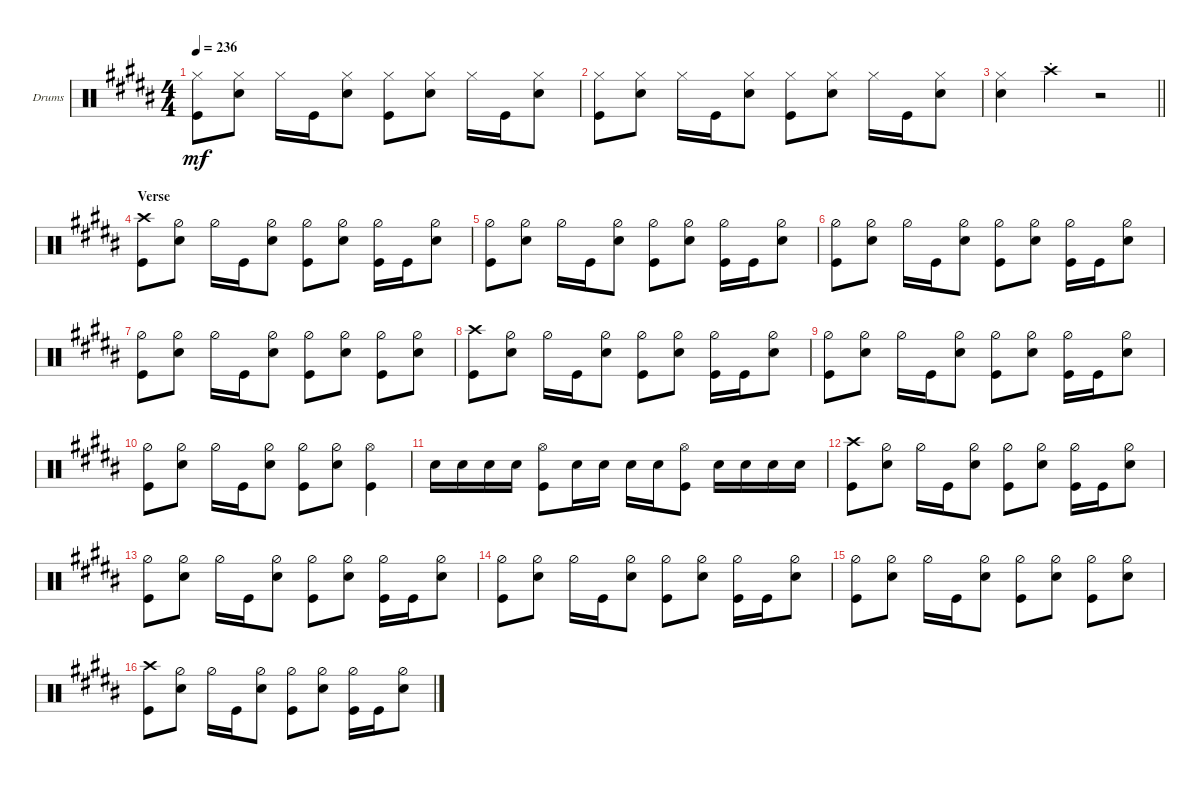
\defaultSystemsLayout 4
\bracketExtendMode groupsimilarinstruments
\firstSystemTrackNameOrientation horizontal
\otherSystemsTrackNameOrientation horizontal
\track ("Drums" "Drums") {instrument percussion}
\staff {score}
\articulation defaults
\ts (4 4)
\tempo 236
\clef neutral
\ks b
("Hi-Hat (closed)" "Kick (hit)").8{dy mf} ("Hi-Hat (closed)" "Snare (hit) 2").8 "Hi-Hat (closed)".16 "Kick (hit)".16 ("Hi-Hat (closed)" "Snare (hit) 2").8 ("Hi-Hat (closed)" "Kick (hit)").8 ("Hi-Hat (closed)" "Snare (hit) 2").8 "Hi-Hat (closed)".16 "Kick (hit)".16 ("Hi-Hat (closed)" "Snare (hit) 2").8 |
("Hi-Hat (closed)" "Kick (hit)").8 ("Hi-Hat (closed)" "Snare (hit) 2").8 "Hi-Hat (closed)".16 "Kick (hit)".16 ("Hi-Hat (closed)" "Snare (hit) 2").8 ("Hi-Hat (closed)" "Kick (hit)").8 ("Hi-Hat (closed)" "Snare (hit) 2").8 "Hi-Hat (closed)".16 "Kick (hit)".16 ("Hi-Hat (closed)" "Snare (hit) 2").8 |
\barLineRight lightlight
("Hi-Hat (closed)" "Snare (hit) 2").4 "Crash high (hit)"{st}.4 r.2 |
\section ("" "Verse")
("Kick (hit)" "Crash high (hit)").8 ("Hi-Hat (half)" "Snare (hit) 2").8 "Hi-Hat (half)".16 "Kick (hit)".16 ("Hi-Hat (half)" "Snare (hit) 2").8 ("Hi-Hat (half)" "Kick (hit)").8 ("Hi-Hat (half)" "Snare (hit) 2").8 ("Hi-Hat (half)" "Kick (hit)").16 "Kick (hit)".16 ("Hi-Hat (half)" "Snare (hit) 2").8 |
("Hi-Hat (half)" "Kick (hit)").8 ("Hi-Hat (half)" "Snare (hit) 2").8 "Hi-Hat (half)".16 "Kick (hit)".16 ("Hi-Hat (half)" "Snare (hit) 2").8 ("Hi-Hat (half)" "Kick (hit)").8 ("Hi-Hat (half)" "Snare (hit) 2").8 ("Hi-Hat (half)" "Kick (hit)").16 "Kick (hit)".16 ("Hi-Hat (half)" "Snare (hit) 2").8 |
("Hi-Hat (half)" "Kick (hit)").8 ("Hi-Hat (half)" "Snare (hit) 2").8 "Hi-Hat (half)".16 "Kick (hit)".16 ("Hi-Hat (half)" "Snare (hit) 2").8 ("Hi-Hat (half)" "Kick (hit)").8 ("Hi-Hat (half)" "Snare (hit) 2").8 ("Hi-Hat (half)" "Kick (hit)").16 "Kick (hit)".16 ("Hi-Hat (half)" "Snare (hit) 2").8 |
("Hi-Hat (half)" "Kick (hit)").8 ("Hi-Hat (half)" "Snare (hit) 2").8 "Hi-Hat (half)".16 "Kick (hit)".16 ("Hi-Hat (half)" "Snare (hit) 2").8 ("Hi-Hat (half)" "Kick (hit)").8 ("Hi-Hat (half)" "Snare (hit) 2").8 ("Hi-Hat (half)" "Kick (hit)").8 ("Hi-Hat (half)" "Snare (hit) 2").8 |
("Kick (hit)" "Crash high (hit)").8 ("Hi-Hat (half)" "Snare (hit) 2").8 "Hi-Hat (half)".16 "Kick (hit)".16 ("Hi-Hat (half)" "Snare (hit) 2").8 ("Hi-Hat (half)" "Kick (hit)").8 ("Hi-Hat (half)" "Snare (hit) 2").8 ("Hi-Hat (half)" "Kick (hit)").16 "Kick (hit)".16 ("Hi-Hat (half)" "Snare (hit) 2").8 |
("Hi-Hat (half)" "Kick (hit)").8 ("Hi-Hat (half)" "Snare (hit) 2").8 "Hi-Hat (half)".16 "Kick (hit)".16 ("Hi-Hat (half)" "Snare (hit) 2").8 ("Hi-Hat (half)" "Kick (hit)").8 ("Hi-Hat (half)" "Snare (hit) 2").8 ("Hi-Hat (half)" "Kick (hit)").16 "Kick (hit)".16 ("Hi-Hat (half)" "Snare (hit) 2").8 |
("Hi-Hat (half)" "Kick (hit)").8 ("Hi-Hat (half)" "Snare (hit) 2").8 "Hi-Hat (half)".16 "Kick (hit)".16 ("Hi-Hat (half)" "Snare (hit) 2").8 ("Hi-Hat (half)" "Kick (hit)").8 ("Hi-Hat (half)" "Snare (hit) 2").8 ("Kick (hit)" "Hi-Hat (open)").4 |
"Snare (hit) 2".16 "Snare (hit) 2".16 "Snare (hit) 2".16 "Snare (hit) 2".16 ("Kick (hit)" "Hi-Hat (open)").8 "Snare (hit) 2".16 "Snare (hit) 2".16 "Snare (hit) 2".16 "Snare (hit) 2".16 ("Kick (hit)" "Hi-Hat (open)").8 "Snare (hit) 2".16 "Snare (hit) 2".16 "Snare (hit) 2".16 "Snare (hit) 2".16 |
("Kick (hit)" "Crash high (hit)").8 ("Hi-Hat (half)" "Snare (hit) 2").8 "Hi-Hat (half)".16 "Kick (hit)".16 ("Hi-Hat (half)" "Snare (hit) 2").8 ("Hi-Hat (half)" "Kick (hit)").8 ("Hi-Hat (half)" "Snare (hit) 2").8 ("Hi-Hat (half)" "Kick (hit)").16 "Kick (hit)".16 ("Hi-Hat (half)" "Snare (hit) 2").8 |
("Hi-Hat (half)" "Kick (hit)").8 ("Hi-Hat (half)" "Snare (hit) 2").8 "Hi-Hat (half)".16 "Kick (hit)".16 ("Hi-Hat (half)" "Snare (hit) 2").8 ("Hi-Hat (half)" "Kick (hit)").8 ("Hi-Hat (half)" "Snare (hit) 2").8 ("Hi-Hat (half)" "Kick (hit)").16 "Kick (hit)".16 ("Hi-Hat (half)" "Snare (hit) 2").8 |
("Hi-Hat (half)" "Kick (hit)").8 ("Hi-Hat (half)" "Snare (hit) 2").8 "Hi-Hat (half)".16 "Kick (hit)".16 ("Hi-Hat (half)" "Snare (hit) 2").8 ("Hi-Hat (half)" "Kick (hit)").8 ("Hi-Hat (half)" "Snare (hit) 2").8 ("Hi-Hat (half)" "Kick (hit)").16 "Kick (hit)".16 ("Hi-Hat (half)" "Snare (hit) 2").8 |
("Hi-Hat (half)" "Kick (hit)").8 ("Hi-Hat (half)" "Snare (hit) 2").8 "Hi-Hat (half)".16 "Kick (hit)".16 ("Hi-Hat (half)" "Snare (hit) 2").8 ("Hi-Hat (half)" "Kick (hit)").8 ("Hi-Hat (half)" "Snare (hit) 2").8 ("Hi-Hat (half)" "Kick (hit)").8 ("Hi-Hat (half)" "Snare (hit) 2").8 |
("Kick (hit)" "Crash high (hit)").8 ("Hi-Hat (half)" "Snare (hit) 2").8 "Hi-Hat (half)".16 "Kick (hit)".16 ("Hi-Hat (half)" "Snare (hit) 2").8 ("Hi-Hat (half)" "Kick (hit)").8 ("Hi-Hat (half)" "Snare (hit) 2").8 ("Hi-Hat (half)" "Kick (hit)").16 "Kick (hit)".16 ("Hi-Hat (half)" "Snare (hit) 2").8
